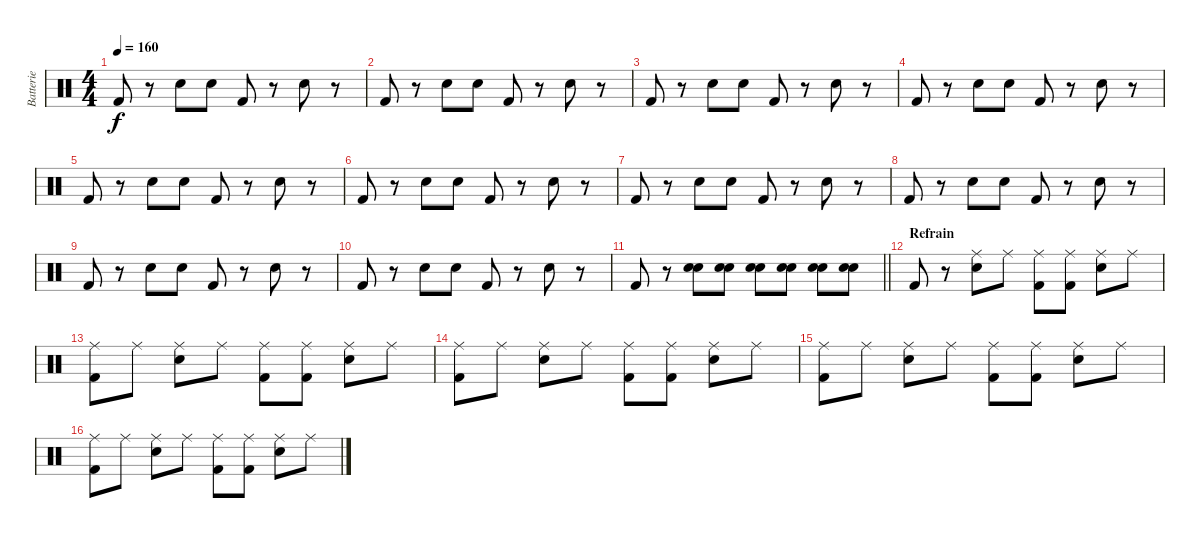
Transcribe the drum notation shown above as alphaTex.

\track ("Batterie" "Batterie") {instrument percussion}
\staff {score}
\articulation defaults
\ts (4 4)
\tempo 160
\clef neutral
\ks c "Kick (hit) 2".8{dy f}
r.8 "Snare (hit) 2".8 "Snare (hit) 2".8 "Kick (hit) 2".8 r.8 "Snare (hit) 2".8 r.8 |
"Kick (hit) 2".8 r.8 "Snare (hit) 2".8 "Snare (hit) 2".8 "Kick (hit) 2".8 r.8 "Snare (hit) 2".8 r.8 |
"Kick (hit) 2".8 r.8 "Snare (hit) 2".8 "Snare (hit) 2".8 "Kick (hit) 2".8 r.8 "Snare (hit) 2".8 r.8 |
"Kick (hit) 2".8 r.8 "Snare (hit) 2".8 "Snare (hit) 2".8 "Kick (hit) 2".8 r.8 "Snare (hit) 2".8 r.8 |
"Kick (hit) 2".8 r.8 "Snare (hit) 2".8 "Snare (hit) 2".8 "Kick (hit) 2".8 r.8 "Snare (hit) 2".8 r.8 |
"Kick (hit) 2".8 r.8 "Snare (hit) 2".8 "Snare (hit) 2".8 "Kick (hit) 2".8 r.8 "Snare (hit) 2".8 r.8 |
"Kick (hit) 2".8 r.8 "Snare (hit) 2".8 "Snare (hit) 2".8 "Kick (hit) 2".8 r.8 "Snare (hit) 2".8 r.8 |
"Kick (hit) 2".8 r.8 "Snare (hit) 2".8 "Snare (hit) 2".8 "Kick (hit) 2".8 r.8 "Snare (hit) 2".8 r.8 |
"Kick (hit) 2".8 r.8 "Snare (hit) 2".8 "Snare (hit) 2".8 "Kick (hit) 2".8 r.8 "Snare (hit) 2".8 r.8 |
"Kick (hit) 2".8 r.8 "Snare (hit) 2".8 "Snare (hit) 2".8 "Kick (hit) 2".8 r.8 "Snare (hit) 2".8 r.8 |
\barLineRight lightlight "Kick (hit) 2".8
r.8 ("Snare (hit) 2" "Snare (hit) 2").8 ("Snare (hit) 2" "Snare (hit) 2").8 ("Snare (hit) 2" "Snare (hit) 2").8 ("Snare (hit) 2" "Snare (hit) 2").8 ("Snare (hit) 2" "Snare (hit) 2").8 ("Snare (hit) 2" "Snare (hit) 2").8 |
\section ("" "Refrain")
"Kick (hit) 2".8 r.8 ("Snare (hit) 2" "Ride (middle)").8 "Ride (middle)".8 ("Kick (hit) 2" "Ride (middle)").8 ("Kick (hit) 2" "Ride (middle)").8 ("Snare (hit) 2" "Ride (middle)").8 "Ride (middle)".8 |
("Kick (hit) 2" "Ride (middle)").8 "Ride (middle)".8 ("Snare (hit) 2" "Ride (middle)").8 "Ride (middle)".8 ("Kick (hit) 2" "Ride (middle)").8 ("Kick (hit) 2" "Ride (middle)").8 ("Snare (hit) 2" "Ride (middle)").8 "Ride (middle)".8 |
("Kick (hit) 2" "Ride (middle)").8 "Ride (middle)".8 ("Snare (hit) 2" "Ride (middle)").8 "Ride (middle)".8 ("Kick (hit) 2" "Ride (middle)").8 ("Kick (hit) 2" "Ride (middle)").8 ("Snare (hit) 2" "Ride (middle)").8 "Ride (middle)".8 |
("Kick (hit) 2" "Ride (middle)").8 "Ride (middle)".8 ("Snare (hit) 2" "Ride (middle)").8 "Ride (middle)".8 ("Kick (hit) 2" "Ride (middle)").8 ("Kick (hit) 2" "Ride (middle)").8 ("Snare (hit) 2" "Ride (middle)").8 "Ride (middle)".8 |
("Kick (hit) 2" "Ride (middle)").8 "Ride (middle)".8 ("Snare (hit) 2" "Ride (middle)").8 "Ride (middle)".8 ("Kick (hit) 2" "Ride (middle)").8 ("Kick (hit) 2" "Ride (middle)").8 ("Snare (hit) 2" "Ride (middle)").8 "Ride (middle)".8
